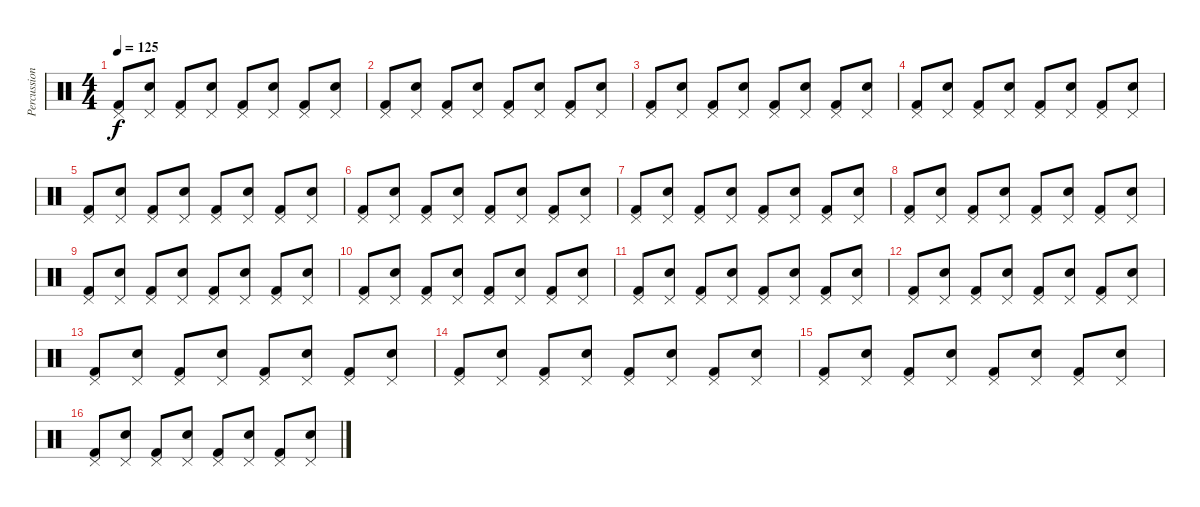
\track ("Percussions" "Percussion") {instrument percussion}
\staff {score}
\articulation defaults
\ts (4 4)
\tempo 125
\clef neutral
\ks c
("Pedal Hi-Hat (hit)" "Kick (hit) 2").8{dy f} ("Pedal Hi-Hat (hit)" "Electric Snare (hit)").8 ("Pedal Hi-Hat (hit)" "Kick (hit) 2").8 ("Pedal Hi-Hat (hit)" "Electric Snare (hit)").8 ("Pedal Hi-Hat (hit)" "Kick (hit) 2").8 ("Pedal Hi-Hat (hit)" "Electric Snare (hit)").8 ("Pedal Hi-Hat (hit)" "Kick (hit) 2").8 ("Pedal Hi-Hat (hit)" "Electric Snare (hit)").8 |
("Pedal Hi-Hat (hit)" "Kick (hit) 2").8 ("Pedal Hi-Hat (hit)" "Electric Snare (hit)").8 ("Pedal Hi-Hat (hit)" "Kick (hit) 2").8 ("Pedal Hi-Hat (hit)" "Electric Snare (hit)").8 ("Pedal Hi-Hat (hit)" "Kick (hit) 2").8 ("Pedal Hi-Hat (hit)" "Electric Snare (hit)").8 ("Pedal Hi-Hat (hit)" "Kick (hit) 2").8 ("Pedal Hi-Hat (hit)" "Electric Snare (hit)").8 |
("Pedal Hi-Hat (hit)" "Kick (hit) 2").8 ("Pedal Hi-Hat (hit)" "Electric Snare (hit)").8 ("Pedal Hi-Hat (hit)" "Kick (hit) 2").8 ("Pedal Hi-Hat (hit)" "Electric Snare (hit)").8 ("Pedal Hi-Hat (hit)" "Kick (hit) 2").8 ("Pedal Hi-Hat (hit)" "Electric Snare (hit)").8 ("Pedal Hi-Hat (hit)" "Kick (hit) 2").8 ("Pedal Hi-Hat (hit)" "Electric Snare (hit)").8 |
("Pedal Hi-Hat (hit)" "Kick (hit) 2").8 ("Pedal Hi-Hat (hit)" "Electric Snare (hit)").8 ("Pedal Hi-Hat (hit)" "Kick (hit) 2").8 ("Pedal Hi-Hat (hit)" "Electric Snare (hit)").8 ("Pedal Hi-Hat (hit)" "Kick (hit) 2").8 ("Pedal Hi-Hat (hit)" "Electric Snare (hit)").8 ("Pedal Hi-Hat (hit)" "Kick (hit) 2").8 ("Pedal Hi-Hat (hit)" "Electric Snare (hit)").8 |
("Pedal Hi-Hat (hit)" "Kick (hit) 2").8 ("Pedal Hi-Hat (hit)" "Electric Snare (hit)").8 ("Pedal Hi-Hat (hit)" "Kick (hit) 2").8 ("Pedal Hi-Hat (hit)" "Electric Snare (hit)").8 ("Pedal Hi-Hat (hit)" "Kick (hit) 2").8 ("Pedal Hi-Hat (hit)" "Electric Snare (hit)").8 ("Pedal Hi-Hat (hit)" "Kick (hit) 2").8 ("Pedal Hi-Hat (hit)" "Electric Snare (hit)").8 |
("Pedal Hi-Hat (hit)" "Kick (hit) 2").8 ("Pedal Hi-Hat (hit)" "Electric Snare (hit)").8 ("Pedal Hi-Hat (hit)" "Kick (hit) 2").8 ("Pedal Hi-Hat (hit)" "Electric Snare (hit)").8 ("Pedal Hi-Hat (hit)" "Kick (hit) 2").8 ("Pedal Hi-Hat (hit)" "Electric Snare (hit)").8 ("Pedal Hi-Hat (hit)" "Kick (hit) 2").8 ("Pedal Hi-Hat (hit)" "Electric Snare (hit)").8 |
("Pedal Hi-Hat (hit)" "Kick (hit) 2").8 ("Pedal Hi-Hat (hit)" "Electric Snare (hit)").8 ("Pedal Hi-Hat (hit)" "Kick (hit) 2").8 ("Pedal Hi-Hat (hit)" "Electric Snare (hit)").8 ("Pedal Hi-Hat (hit)" "Kick (hit) 2").8 ("Pedal Hi-Hat (hit)" "Electric Snare (hit)").8 ("Pedal Hi-Hat (hit)" "Kick (hit) 2").8 ("Pedal Hi-Hat (hit)" "Electric Snare (hit)").8 |
("Pedal Hi-Hat (hit)" "Kick (hit) 2").8 ("Pedal Hi-Hat (hit)" "Electric Snare (hit)").8 ("Pedal Hi-Hat (hit)" "Kick (hit) 2").8 ("Pedal Hi-Hat (hit)" "Electric Snare (hit)").8 ("Pedal Hi-Hat (hit)" "Kick (hit) 2").8 ("Pedal Hi-Hat (hit)" "Electric Snare (hit)").8 ("Pedal Hi-Hat (hit)" "Kick (hit) 2").8 ("Pedal Hi-Hat (hit)" "Electric Snare (hit)").8 |
("Pedal Hi-Hat (hit)" "Kick (hit) 2").8 ("Pedal Hi-Hat (hit)" "Electric Snare (hit)").8 ("Pedal Hi-Hat (hit)" "Kick (hit) 2").8 ("Pedal Hi-Hat (hit)" "Electric Snare (hit)").8 ("Pedal Hi-Hat (hit)" "Kick (hit) 2").8 ("Pedal Hi-Hat (hit)" "Electric Snare (hit)").8 ("Pedal Hi-Hat (hit)" "Kick (hit) 2").8 ("Pedal Hi-Hat (hit)" "Electric Snare (hit)").8 |
("Pedal Hi-Hat (hit)" "Kick (hit) 2").8 ("Pedal Hi-Hat (hit)" "Electric Snare (hit)").8 ("Pedal Hi-Hat (hit)" "Kick (hit) 2").8 ("Pedal Hi-Hat (hit)" "Electric Snare (hit)").8 ("Pedal Hi-Hat (hit)" "Kick (hit) 2").8 ("Pedal Hi-Hat (hit)" "Electric Snare (hit)").8 ("Pedal Hi-Hat (hit)" "Kick (hit) 2").8 ("Pedal Hi-Hat (hit)" "Electric Snare (hit)").8 |
("Pedal Hi-Hat (hit)" "Kick (hit) 2").8 ("Pedal Hi-Hat (hit)" "Electric Snare (hit)").8 ("Pedal Hi-Hat (hit)" "Kick (hit) 2").8 ("Pedal Hi-Hat (hit)" "Electric Snare (hit)").8 ("Pedal Hi-Hat (hit)" "Kick (hit) 2").8 ("Pedal Hi-Hat (hit)" "Electric Snare (hit)").8 ("Pedal Hi-Hat (hit)" "Kick (hit) 2").8 ("Pedal Hi-Hat (hit)" "Electric Snare (hit)").8 |
("Pedal Hi-Hat (hit)" "Kick (hit) 2").8 ("Pedal Hi-Hat (hit)" "Electric Snare (hit)").8 ("Pedal Hi-Hat (hit)" "Kick (hit) 2").8 ("Pedal Hi-Hat (hit)" "Electric Snare (hit)").8 ("Pedal Hi-Hat (hit)" "Kick (hit) 2").8 ("Pedal Hi-Hat (hit)" "Electric Snare (hit)").8 ("Pedal Hi-Hat (hit)" "Kick (hit) 2").8 ("Pedal Hi-Hat (hit)" "Electric Snare (hit)").8 |
("Pedal Hi-Hat (hit)" "Kick (hit) 2").8 ("Pedal Hi-Hat (hit)" "Electric Snare (hit)").8 ("Pedal Hi-Hat (hit)" "Kick (hit) 2").8 ("Pedal Hi-Hat (hit)" "Electric Snare (hit)").8 ("Pedal Hi-Hat (hit)" "Kick (hit) 2").8 ("Pedal Hi-Hat (hit)" "Electric Snare (hit)").8 ("Pedal Hi-Hat (hit)" "Kick (hit) 2").8 ("Pedal Hi-Hat (hit)" "Electric Snare (hit)").8 |
("Pedal Hi-Hat (hit)" "Kick (hit) 2").8 ("Pedal Hi-Hat (hit)" "Electric Snare (hit)").8 ("Pedal Hi-Hat (hit)" "Kick (hit) 2").8 ("Pedal Hi-Hat (hit)" "Electric Snare (hit)").8 ("Pedal Hi-Hat (hit)" "Kick (hit) 2").8 ("Pedal Hi-Hat (hit)" "Electric Snare (hit)").8 ("Pedal Hi-Hat (hit)" "Kick (hit) 2").8 ("Pedal Hi-Hat (hit)" "Electric Snare (hit)").8 |
("Pedal Hi-Hat (hit)" "Kick (hit) 2").8 ("Pedal Hi-Hat (hit)" "Electric Snare (hit)").8 ("Pedal Hi-Hat (hit)" "Kick (hit) 2").8 ("Pedal Hi-Hat (hit)" "Electric Snare (hit)").8 ("Pedal Hi-Hat (hit)" "Kick (hit) 2").8 ("Pedal Hi-Hat (hit)" "Electric Snare (hit)").8 ("Pedal Hi-Hat (hit)" "Kick (hit) 2").8 ("Pedal Hi-Hat (hit)" "Electric Snare (hit)").8 |
("Pedal Hi-Hat (hit)" "Kick (hit) 2").8 ("Pedal Hi-Hat (hit)" "Electric Snare (hit)").8 ("Pedal Hi-Hat (hit)" "Kick (hit) 2").8 ("Pedal Hi-Hat (hit)" "Electric Snare (hit)").8 ("Pedal Hi-Hat (hit)" "Kick (hit) 2").8 ("Pedal Hi-Hat (hit)" "Electric Snare (hit)").8 ("Pedal Hi-Hat (hit)" "Kick (hit) 2").8 ("Pedal Hi-Hat (hit)" "Electric Snare (hit)").8
